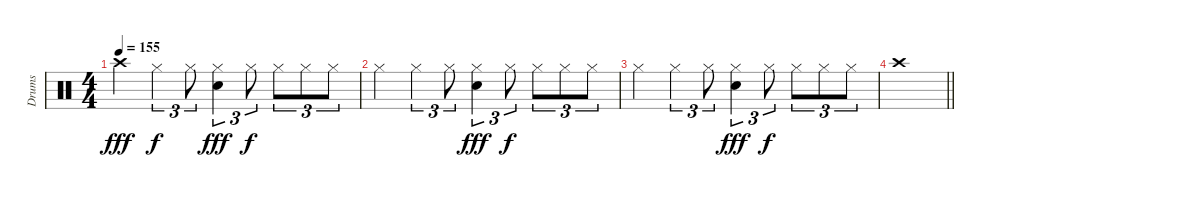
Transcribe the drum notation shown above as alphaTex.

\track ("Drums" "Drums") {instrument percussion}
\staff {score}
\articulation defaults
\ts (4 4)
\tempo 155
\clef neutral
\ks c "Crash high (hit)".4{dy fff} "Hi-Hat (closed)".4{tu (3 2) dy f} "Hi-Hat (closed)".8{tu (3 2)}
("Hi-Hat (closed)" "Electric Snare (hit)").4{tu (3 2) dy fff} "Hi-Hat (closed)".8{tu (3 2) dy f} "Hi-Hat (closed)".8{tu (3 2)} "Hi-Hat (closed)".8{tu (3 2)} "Hi-Hat (closed)".8{tu (3 2)} |
"Hi-Hat (closed)".4 "Hi-Hat (closed)".4{tu (3 2)} "Hi-Hat (closed)".8{tu (3 2)} ("Hi-Hat (closed)" "Electric Snare (hit)").4{tu (3 2) dy fff} "Hi-Hat (closed)".8{tu (3 2) dy f} "Hi-Hat (closed)".8{tu (3 2)} "Hi-Hat (closed)".8{tu (3 2)} "Hi-Hat (closed)".8{tu (3 2)} |
"Hi-Hat (closed)".4 "Hi-Hat (closed)".4{tu (3 2)} "Hi-Hat (closed)".8{tu (3 2)} ("Hi-Hat (closed)" "Electric Snare (hit)").4{tu (3 2) dy fff} "Hi-Hat (closed)".8{tu (3 2) dy f} "Hi-Hat (closed)".8{tu (3 2)} "Hi-Hat (closed)".8{tu (3 2)} "Hi-Hat (closed)".8{tu (3 2)} |
\barLineRight lightlight "Crash high (hit)".1
